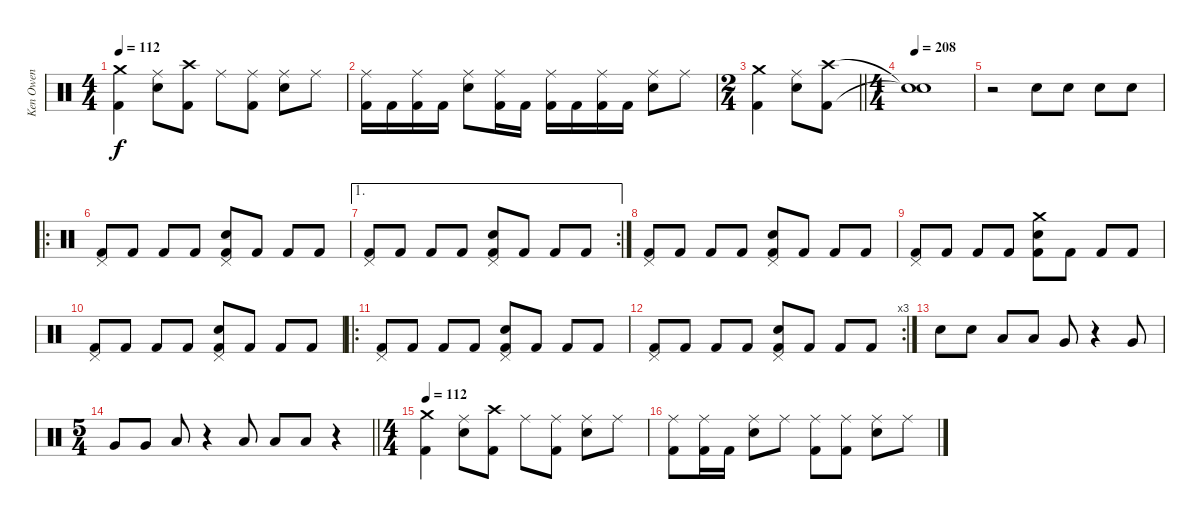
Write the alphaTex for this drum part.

\track ("Ken Owen" "Ken Owen") {instrument percussion}
\staff {score}
\articulation defaults
\ts (4 4)
\tempo 112
\clef neutral
\ks c
("Crash medium (hit)" "Kick (hit) 2").4{dy f} ("Ride (middle)" "Electric Snare (hit)").8 ("Crash high (hit)" "Kick (hit) 2").8 "Ride (middle)".8 ("Ride (middle)" "Kick (hit) 2").8 ("Ride (middle)" "Electric Snare (hit)").8 "Ride (middle)".8 |
("Ride (middle)" "Kick (hit) 2").16 "Kick (hit) 2".16 ("Ride (middle)" "Kick (hit) 2").16 "Kick (hit) 2".16 ("Ride (middle)" "Electric Snare (hit)").8 ("Ride (middle)" "Kick (hit) 2").16 "Kick (hit) 2".16 ("Ride (middle)" "Kick (hit) 2").16 "Kick (hit) 2".16 ("Ride (middle)" "Kick (hit) 2").16 "Kick (hit) 2".16 ("Ride (middle)" "Electric Snare (hit)").8 "Ride (middle)".8 |
\ts (2 4)
\barLineRight lightlight
("Crash medium (hit)" "Kick (hit) 2").4 ("Ride (middle)" "Electric Snare (hit)").8 ("Crash high (hit)" "Kick (hit) 2").8 |
\ts (4 4)
\tempo 205
\tempo 208
("Snare (hit)"{t} "Snare (hit)"{t}).1 |
r.2 "Electric Snare (hit)".8 "Electric Snare (hit)".8 "Electric Snare (hit)".8 "Electric Snare (hit)".8 |
\ro
("Pedal Hi-Hat (hit)" "Kick (hit) 2").8 "Kick (hit) 2".8 "Kick (hit) 2".8 "Kick (hit) 2".8 ("Pedal Hi-Hat (hit)" "Electric Snare (hit)" "Kick (hit) 2").8 "Kick (hit) 2".8 "Kick (hit) 2".8 "Kick (hit) 2".8 |
\ae 1
\rc 2
("Pedal Hi-Hat (hit)" "Kick (hit) 2").8 "Kick (hit) 2".8 "Kick (hit) 2".8 "Kick (hit) 2".8 ("Pedal Hi-Hat (hit)" "Electric Snare (hit)" "Kick (hit) 2").8 "Kick (hit) 2".8 "Kick (hit) 2".8 "Kick (hit) 2".8 |
("Pedal Hi-Hat (hit)" "Kick (hit) 2").8 "Kick (hit) 2".8 "Kick (hit) 2".8 "Kick (hit) 2".8 ("Pedal Hi-Hat (hit)" "Electric Snare (hit)" "Kick (hit) 2").8 "Kick (hit) 2".8 "Kick (hit) 2".8 "Kick (hit) 2".8 |
("Pedal Hi-Hat (hit)" "Kick (hit) 2").8 "Kick (hit) 2".8 "Kick (hit) 2".8 "Kick (hit) 2".8 ("Crash medium (hit)" "Electric Snare (hit)" "Kick (hit) 2").8 "Kick (hit) 2".8 "Kick (hit) 2".8 "Kick (hit) 2".8 |
("Pedal Hi-Hat (hit)" "Kick (hit) 2").8 "Kick (hit) 2".8 "Kick (hit) 2".8 "Kick (hit) 2".8 ("Pedal Hi-Hat (hit)" "Electric Snare (hit)" "Kick (hit) 2").8 "Kick (hit) 2".8 "Kick (hit) 2".8 "Kick (hit) 2".8 |
\ro
("Pedal Hi-Hat (hit)" "Kick (hit) 2").8 "Kick (hit) 2".8 "Kick (hit) 2".8 "Kick (hit) 2".8 ("Pedal Hi-Hat (hit)" "Electric Snare (hit)" "Kick (hit) 2").8 "Kick (hit) 2".8 "Kick (hit) 2".8 "Kick (hit) 2".8 |
\rc 3
("Pedal Hi-Hat (hit)" "Kick (hit) 2").8 "Kick (hit) 2".8 "Kick (hit) 2".8 "Kick (hit) 2".8 ("Pedal Hi-Hat (hit)" "Electric Snare (hit)" "Kick (hit) 2").8 "Kick (hit) 2".8 "Kick (hit) 2".8 "Kick (hit) 2".8 |
"Electric Snare (hit)".8 "Electric Snare (hit)".8 "Low Tom (hit)".8 "Low Tom (hit)".8 "Very Low Tom (hit)".8 r.4 "Very Low Tom (hit)".8 |
\ts (5 4)
\barLineRight lightlight "Very Low Tom (hit)".8 "Very Low Tom (hit)".8 "Low Floor Tom (hit)".8
r.4 "Low Floor Tom (hit)".8 "Low Floor Tom (hit)".8 "Low Floor Tom (hit)".8 r.4 |
\ts (4 4)
\tempo 112
("Crash medium (hit)" "Kick (hit) 2").4 ("Ride (middle)" "Electric Snare (hit)").8 ("Crash high (hit)" "Kick (hit) 2").8 "Ride (middle)".8 ("Ride (middle)" "Kick (hit) 2").8 ("Ride (middle)" "Electric Snare (hit)").8 "Ride (middle)".8 |
("Ride (middle)" "Kick (hit) 2").8 ("Ride (middle)" "Kick (hit) 2").16 "Kick (hit) 2".16 ("Ride (middle)" "Electric Snare (hit)").8 "Ride (middle)".8 ("Ride (middle)" "Kick (hit) 2").8 ("Ride (middle)" "Kick (hit) 2").8 ("Ride (middle)" "Electric Snare (hit)").8 "Ride (middle)".8
